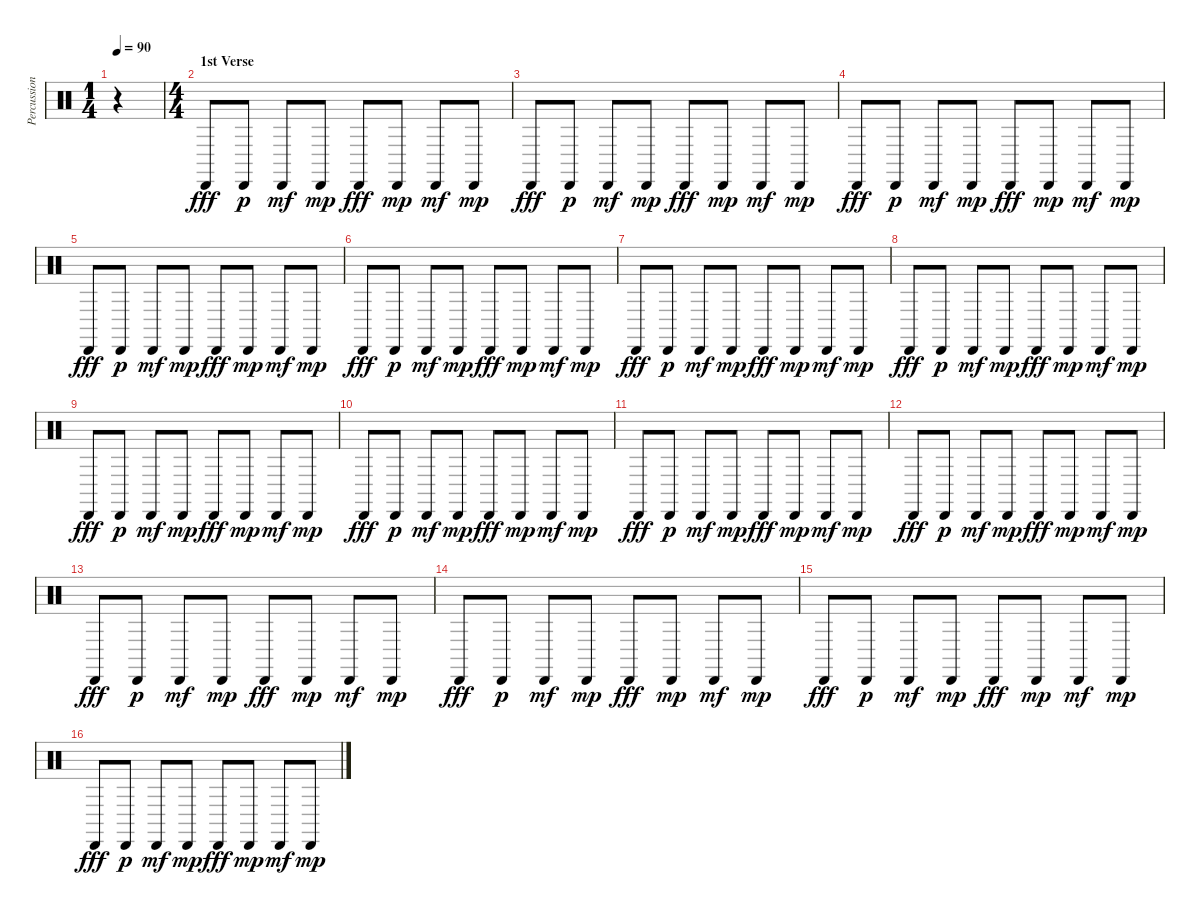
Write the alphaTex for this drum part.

\track ("Percussion" "Percussion") {instrument percussion}
\staff {score}
\articulation defaults
\ts (1 4)
\tempo 90
\clef neutral
\ks c
r.4{dy fff} |
\ts (4 4)
\section ("" "1st Verse")
"Cabasa (hit)".8 "Cabasa (hit)".8{dy p} "Cabasa (hit)".8{dy mf} "Cabasa (hit)".8{dy mp} "Cabasa (hit)".8{dy fff} "Cabasa (hit)".8{dy mp} "Cabasa (hit)".8{dy mf} "Cabasa (hit)".8{dy mp} |
"Cabasa (hit)".8{dy fff} "Cabasa (hit)".8{dy p} "Cabasa (hit)".8{dy mf} "Cabasa (hit)".8{dy mp} "Cabasa (hit)".8{dy fff} "Cabasa (hit)".8{dy mp} "Cabasa (hit)".8{dy mf} "Cabasa (hit)".8{dy mp} |
"Cabasa (hit)".8{dy fff} "Cabasa (hit)".8{dy p} "Cabasa (hit)".8{dy mf} "Cabasa (hit)".8{dy mp} "Cabasa (hit)".8{dy fff} "Cabasa (hit)".8{dy mp} "Cabasa (hit)".8{dy mf} "Cabasa (hit)".8{dy mp} |
"Cabasa (hit)".8{dy fff} "Cabasa (hit)".8{dy p} "Cabasa (hit)".8{dy mf} "Cabasa (hit)".8{dy mp} "Cabasa (hit)".8{dy fff} "Cabasa (hit)".8{dy mp} "Cabasa (hit)".8{dy mf} "Cabasa (hit)".8{dy mp} |
"Cabasa (hit)".8{dy fff} "Cabasa (hit)".8{dy p} "Cabasa (hit)".8{dy mf} "Cabasa (hit)".8{dy mp} "Cabasa (hit)".8{dy fff} "Cabasa (hit)".8{dy mp} "Cabasa (hit)".8{dy mf} "Cabasa (hit)".8{dy mp} |
"Cabasa (hit)".8{dy fff} "Cabasa (hit)".8{dy p} "Cabasa (hit)".8{dy mf} "Cabasa (hit)".8{dy mp} "Cabasa (hit)".8{dy fff} "Cabasa (hit)".8{dy mp} "Cabasa (hit)".8{dy mf} "Cabasa (hit)".8{dy mp} |
"Cabasa (hit)".8{dy fff} "Cabasa (hit)".8{dy p} "Cabasa (hit)".8{dy mf} "Cabasa (hit)".8{dy mp} "Cabasa (hit)".8{dy fff} "Cabasa (hit)".8{dy mp} "Cabasa (hit)".8{dy mf} "Cabasa (hit)".8{dy mp} |
"Cabasa (hit)".8{dy fff} "Cabasa (hit)".8{dy p} "Cabasa (hit)".8{dy mf} "Cabasa (hit)".8{dy mp} "Cabasa (hit)".8{dy fff} "Cabasa (hit)".8{dy mp} "Cabasa (hit)".8{dy mf} "Cabasa (hit)".8{dy mp} |
"Cabasa (hit)".8{dy fff} "Cabasa (hit)".8{dy p} "Cabasa (hit)".8{dy mf} "Cabasa (hit)".8{dy mp} "Cabasa (hit)".8{dy fff} "Cabasa (hit)".8{dy mp} "Cabasa (hit)".8{dy mf} "Cabasa (hit)".8{dy mp} |
"Cabasa (hit)".8{dy fff} "Cabasa (hit)".8{dy p} "Cabasa (hit)".8{dy mf} "Cabasa (hit)".8{dy mp} "Cabasa (hit)".8{dy fff} "Cabasa (hit)".8{dy mp} "Cabasa (hit)".8{dy mf} "Cabasa (hit)".8{dy mp} |
"Cabasa (hit)".8{dy fff} "Cabasa (hit)".8{dy p} "Cabasa (hit)".8{dy mf} "Cabasa (hit)".8{dy mp} "Cabasa (hit)".8{dy fff} "Cabasa (hit)".8{dy mp} "Cabasa (hit)".8{dy mf} "Cabasa (hit)".8{dy mp} |
"Cabasa (hit)".8{dy fff} "Cabasa (hit)".8{dy p} "Cabasa (hit)".8{dy mf} "Cabasa (hit)".8{dy mp} "Cabasa (hit)".8{dy fff} "Cabasa (hit)".8{dy mp} "Cabasa (hit)".8{dy mf} "Cabasa (hit)".8{dy mp} |
"Cabasa (hit)".8{dy fff} "Cabasa (hit)".8{dy p} "Cabasa (hit)".8{dy mf} "Cabasa (hit)".8{dy mp} "Cabasa (hit)".8{dy fff} "Cabasa (hit)".8{dy mp} "Cabasa (hit)".8{dy mf} "Cabasa (hit)".8{dy mp} |
"Cabasa (hit)".8{dy fff} "Cabasa (hit)".8{dy p} "Cabasa (hit)".8{dy mf} "Cabasa (hit)".8{dy mp} "Cabasa (hit)".8{dy fff} "Cabasa (hit)".8{dy mp} "Cabasa (hit)".8{dy mf} "Cabasa (hit)".8{dy mp} |
"Cabasa (hit)".8{dy fff} "Cabasa (hit)".8{dy p} "Cabasa (hit)".8{dy mf} "Cabasa (hit)".8{dy mp} "Cabasa (hit)".8{dy fff} "Cabasa (hit)".8{dy mp} "Cabasa (hit)".8{dy mf} "Cabasa (hit)".8{dy mp}
